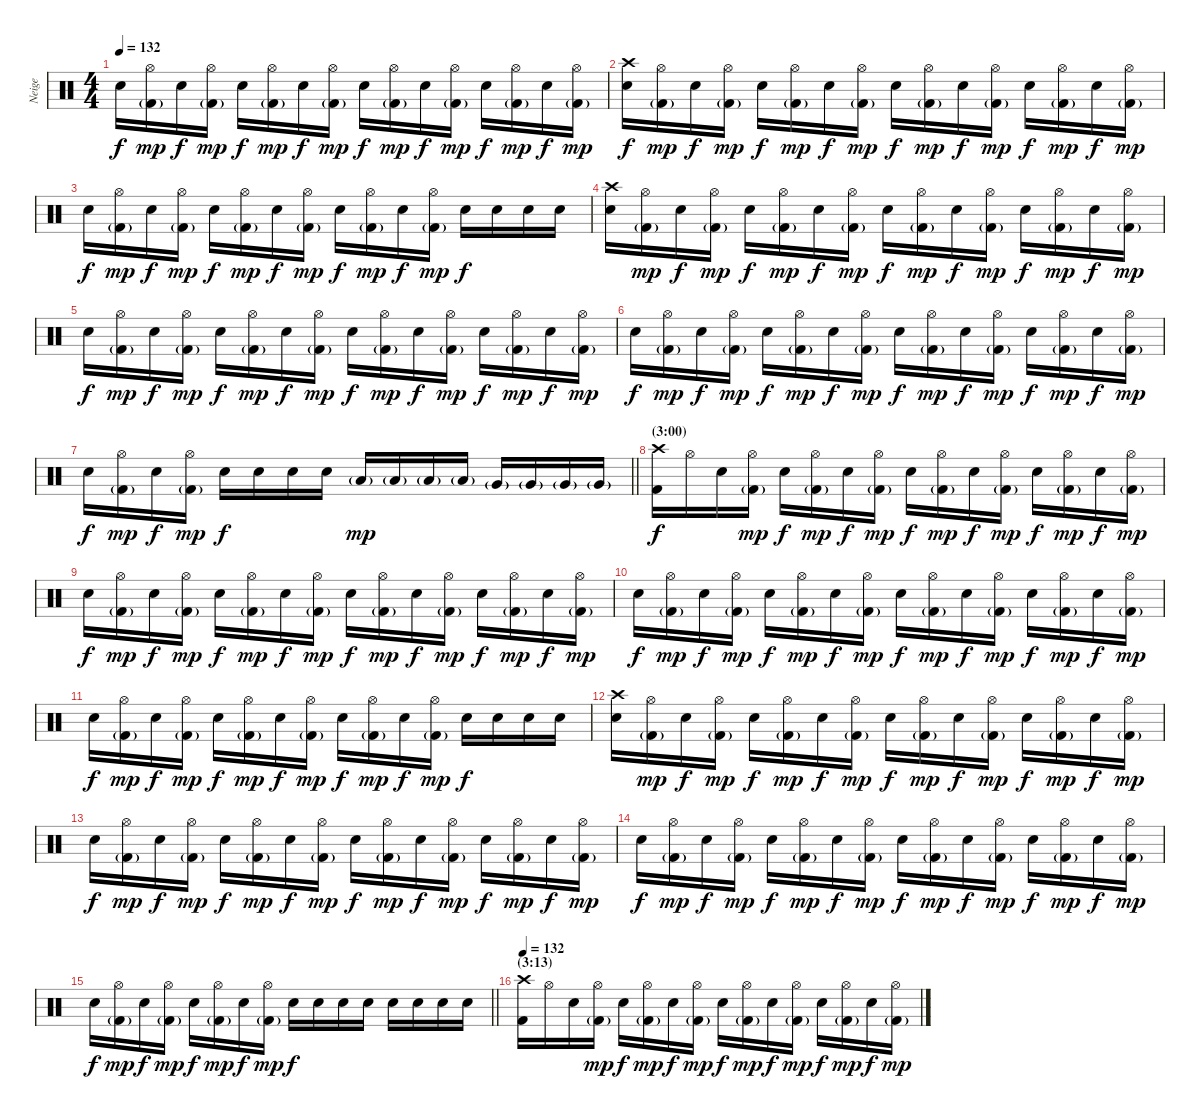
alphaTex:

\track ("Neige" "Neige") {instrument percussion}
\staff {score}
\articulation defaults
\ts (4 4)
\tempo 132
\clef neutral
\ks c "Snare (hit) 2".16{dy f}
("Kick (hit) 2"{g} "Hi-Hat (open)").16{dy mp} "Snare (hit) 2".16{dy f} ("Kick (hit) 2"{g} "Hi-Hat (open)").16{dy mp} "Snare (hit) 2".16{dy f} ("Kick (hit) 2"{g} "Hi-Hat (open)").16{dy mp} "Snare (hit) 2".16{dy f} ("Kick (hit) 2"{g} "Hi-Hat (open)").16{dy mp} "Snare (hit) 2".16{dy f} ("Kick (hit) 2"{g} "Hi-Hat (open)").16{dy mp} "Snare (hit) 2".16{dy f} ("Kick (hit) 2"{g} "Hi-Hat (open)").16{dy mp} "Snare (hit) 2".16{dy f} ("Kick (hit) 2"{g} "Hi-Hat (open)").16{dy mp} "Snare (hit) 2".16{dy f} ("Kick (hit) 2"{g} "Hi-Hat (open)").16{dy mp} |
("Snare (hit) 2" "Crash high (hit)").16{dy f} ("Kick (hit) 2"{g} "Hi-Hat (open)").16{dy mp} "Snare (hit) 2".16{dy f} ("Kick (hit) 2"{g} "Hi-Hat (open)").16{dy mp} "Snare (hit) 2".16{dy f} ("Kick (hit) 2"{g} "Hi-Hat (open)").16{dy mp} "Snare (hit) 2".16{dy f} ("Kick (hit) 2"{g} "Hi-Hat (open)").16{dy mp} "Snare (hit) 2".16{dy f} ("Kick (hit) 2"{g} "Hi-Hat (open)").16{dy mp} "Snare (hit) 2".16{dy f} ("Kick (hit) 2"{g} "Hi-Hat (open)").16{dy mp} "Snare (hit) 2".16{dy f} ("Kick (hit) 2"{g} "Hi-Hat (open)").16{dy mp} "Snare (hit) 2".16{dy f} ("Kick (hit) 2"{g} "Hi-Hat (open)").16{dy mp} |
"Snare (hit) 2".16{dy f} ("Kick (hit) 2"{g} "Hi-Hat (open)").16{dy mp} "Snare (hit) 2".16{dy f} ("Kick (hit) 2"{g} "Hi-Hat (open)").16{dy mp} "Snare (hit) 2".16{dy f} ("Kick (hit) 2"{g} "Hi-Hat (open)").16{dy mp} "Snare (hit) 2".16{dy f} ("Kick (hit) 2"{g} "Hi-Hat (open)").16{dy mp} "Snare (hit) 2".16{dy f} ("Kick (hit) 2"{g} "Hi-Hat (open)").16{dy mp} "Snare (hit) 2".16{dy f} ("Kick (hit) 2"{g} "Hi-Hat (open)").16{dy mp} "Snare (hit) 2".16{dy f} "Snare (hit) 2".16 "Snare (hit) 2".16 "Snare (hit) 2".16 |
("Snare (hit) 2" "Crash high (hit)").16 ("Kick (hit) 2"{g} "Hi-Hat (open)").16{dy mp} "Snare (hit) 2".16{dy f} ("Kick (hit) 2"{g} "Hi-Hat (open)").16{dy mp} "Snare (hit) 2".16{dy f} ("Kick (hit) 2"{g} "Hi-Hat (open)").16{dy mp} "Snare (hit) 2".16{dy f} ("Kick (hit) 2"{g} "Hi-Hat (open)").16{dy mp} "Snare (hit) 2".16{dy f} ("Kick (hit) 2"{g} "Hi-Hat (open)").16{dy mp} "Snare (hit) 2".16{dy f} ("Kick (hit) 2"{g} "Hi-Hat (open)").16{dy mp} "Snare (hit) 2".16{dy f} ("Kick (hit) 2"{g} "Hi-Hat (open)").16{dy mp} "Snare (hit) 2".16{dy f} ("Kick (hit) 2"{g} "Hi-Hat (open)").16{dy mp} |
"Snare (hit) 2".16{dy f} ("Kick (hit) 2"{g} "Hi-Hat (open)").16{dy mp} "Snare (hit) 2".16{dy f} ("Kick (hit) 2"{g} "Hi-Hat (open)").16{dy mp} "Snare (hit) 2".16{dy f} ("Kick (hit) 2"{g} "Hi-Hat (open)").16{dy mp} "Snare (hit) 2".16{dy f} ("Kick (hit) 2"{g} "Hi-Hat (open)").16{dy mp} "Snare (hit) 2".16{dy f} ("Kick (hit) 2"{g} "Hi-Hat (open)").16{dy mp} "Snare (hit) 2".16{dy f} ("Kick (hit) 2"{g} "Hi-Hat (open)").16{dy mp} "Snare (hit) 2".16{dy f} ("Kick (hit) 2"{g} "Hi-Hat (open)").16{dy mp} "Snare (hit) 2".16{dy f} ("Kick (hit) 2"{g} "Hi-Hat (open)").16{dy mp} |
"Snare (hit) 2".16{dy f} ("Kick (hit) 2"{g} "Hi-Hat (open)").16{dy mp} "Snare (hit) 2".16{dy f} ("Kick (hit) 2"{g} "Hi-Hat (open)").16{dy mp} "Snare (hit) 2".16{dy f} ("Kick (hit) 2"{g} "Hi-Hat (open)").16{dy mp} "Snare (hit) 2".16{dy f} ("Kick (hit) 2"{g} "Hi-Hat (open)").16{dy mp} "Snare (hit) 2".16{dy f} ("Kick (hit) 2"{g} "Hi-Hat (open)").16{dy mp} "Snare (hit) 2".16{dy f} ("Kick (hit) 2"{g} "Hi-Hat (open)").16{dy mp} "Snare (hit) 2".16{dy f} ("Kick (hit) 2"{g} "Hi-Hat (open)").16{dy mp} "Snare (hit) 2".16{dy f} ("Kick (hit) 2"{g} "Hi-Hat (open)").16{dy mp} |
\barLineRight lightlight "Snare (hit) 2".16{dy f}
("Kick (hit) 2"{g} "Hi-Hat (open)").16{dy mp} "Snare (hit) 2".16{dy f} ("Kick (hit) 2"{g} "Hi-Hat (open)").16{dy mp} "Snare (hit) 2".16{dy f} "Snare (hit) 2".16 "Snare (hit) 2".16 "Snare (hit) 2".16 "Low Tom (hit)"{g}.16{dy mp} "Low Tom (hit)"{g}.16 "Low Tom (hit)"{g}.16 "Low Tom (hit)"{g}.16 "Very Low Tom (hit)"{g}.16 "Very Low Tom (hit)"{g}.16 "Very Low Tom (hit)"{g}.16 "Very Low Tom (hit)"{g}.16 |
\section ("" "(3:00)")
("Kick (hit) 2" "Crash high (hit)").16{dy f} "Hi-Hat (open)".16 "Snare (hit) 2".16 ("Kick (hit) 2"{g} "Hi-Hat (open)").16{dy mp} "Snare (hit) 2".16{dy f} ("Kick (hit) 2"{g} "Hi-Hat (open)").16{dy mp} "Snare (hit) 2".16{dy f} ("Kick (hit) 2"{g} "Hi-Hat (open)").16{dy mp} "Snare (hit) 2".16{dy f} ("Kick (hit) 2"{g} "Hi-Hat (open)").16{dy mp} "Snare (hit) 2".16{dy f} ("Kick (hit) 2"{g} "Hi-Hat (open)").16{dy mp} "Snare (hit) 2".16{dy f} ("Kick (hit) 2"{g} "Hi-Hat (open)").16{dy mp} "Snare (hit) 2".16{dy f} ("Kick (hit) 2"{g} "Hi-Hat (open)").16{dy mp} |
"Snare (hit) 2".16{dy f} ("Kick (hit) 2"{g} "Hi-Hat (open)").16{dy mp} "Snare (hit) 2".16{dy f} ("Kick (hit) 2"{g} "Hi-Hat (open)").16{dy mp} "Snare (hit) 2".16{dy f} ("Kick (hit) 2"{g} "Hi-Hat (open)").16{dy mp} "Snare (hit) 2".16{dy f} ("Kick (hit) 2"{g} "Hi-Hat (open)").16{dy mp} "Snare (hit) 2".16{dy f} ("Kick (hit) 2"{g} "Hi-Hat (open)").16{dy mp} "Snare (hit) 2".16{dy f} ("Kick (hit) 2"{g} "Hi-Hat (open)").16{dy mp} "Snare (hit) 2".16{dy f} ("Kick (hit) 2"{g} "Hi-Hat (open)").16{dy mp} "Snare (hit) 2".16{dy f} ("Kick (hit) 2"{g} "Hi-Hat (open)").16{dy mp} |
"Snare (hit) 2".16{dy f} ("Kick (hit) 2"{g} "Hi-Hat (open)").16{dy mp} "Snare (hit) 2".16{dy f} ("Kick (hit) 2"{g} "Hi-Hat (open)").16{dy mp} "Snare (hit) 2".16{dy f} ("Kick (hit) 2"{g} "Hi-Hat (open)").16{dy mp} "Snare (hit) 2".16{dy f} ("Kick (hit) 2"{g} "Hi-Hat (open)").16{dy mp} "Snare (hit) 2".16{dy f} ("Kick (hit) 2"{g} "Hi-Hat (open)").16{dy mp} "Snare (hit) 2".16{dy f} ("Kick (hit) 2"{g} "Hi-Hat (open)").16{dy mp} "Snare (hit) 2".16{dy f} ("Kick (hit) 2"{g} "Hi-Hat (open)").16{dy mp} "Snare (hit) 2".16{dy f} ("Kick (hit) 2"{g} "Hi-Hat (open)").16{dy mp} |
"Snare (hit) 2".16{dy f} ("Kick (hit) 2"{g} "Hi-Hat (open)").16{dy mp} "Snare (hit) 2".16{dy f} ("Kick (hit) 2"{g} "Hi-Hat (open)").16{dy mp} "Snare (hit) 2".16{dy f} ("Kick (hit) 2"{g} "Hi-Hat (open)").16{dy mp} "Snare (hit) 2".16{dy f} ("Kick (hit) 2"{g} "Hi-Hat (open)").16{dy mp} "Snare (hit) 2".16{dy f} ("Kick (hit) 2"{g} "Hi-Hat (open)").16{dy mp} "Snare (hit) 2".16{dy f} ("Kick (hit) 2"{g} "Hi-Hat (open)").16{dy mp} "Snare (hit) 2".16{dy f} "Snare (hit) 2".16 "Snare (hit) 2".16 "Snare (hit) 2".16 |
("Snare (hit) 2" "Crash high (hit)").16 ("Kick (hit) 2"{g} "Hi-Hat (open)").16{dy mp} "Snare (hit) 2".16{dy f} ("Kick (hit) 2"{g} "Hi-Hat (open)").16{dy mp} "Snare (hit) 2".16{dy f} ("Kick (hit) 2"{g} "Hi-Hat (open)").16{dy mp} "Snare (hit) 2".16{dy f} ("Kick (hit) 2"{g} "Hi-Hat (open)").16{dy mp} "Snare (hit) 2".16{dy f} ("Kick (hit) 2"{g} "Hi-Hat (open)").16{dy mp} "Snare (hit) 2".16{dy f} ("Kick (hit) 2"{g} "Hi-Hat (open)").16{dy mp} "Snare (hit) 2".16{dy f} ("Kick (hit) 2"{g} "Hi-Hat (open)").16{dy mp} "Snare (hit) 2".16{dy f} ("Kick (hit) 2"{g} "Hi-Hat (open)").16{dy mp} |
"Snare (hit) 2".16{dy f} ("Kick (hit) 2"{g} "Hi-Hat (open)").16{dy mp} "Snare (hit) 2".16{dy f} ("Kick (hit) 2"{g} "Hi-Hat (open)").16{dy mp} "Snare (hit) 2".16{dy f} ("Kick (hit) 2"{g} "Hi-Hat (open)").16{dy mp} "Snare (hit) 2".16{dy f} ("Kick (hit) 2"{g} "Hi-Hat (open)").16{dy mp} "Snare (hit) 2".16{dy f} ("Kick (hit) 2"{g} "Hi-Hat (open)").16{dy mp} "Snare (hit) 2".16{dy f} ("Kick (hit) 2"{g} "Hi-Hat (open)").16{dy mp} "Snare (hit) 2".16{dy f} ("Kick (hit) 2"{g} "Hi-Hat (open)").16{dy mp} "Snare (hit) 2".16{dy f} ("Kick (hit) 2"{g} "Hi-Hat (open)").16{dy mp} |
"Snare (hit) 2".16{dy f} ("Kick (hit) 2"{g} "Hi-Hat (open)").16{dy mp} "Snare (hit) 2".16{dy f} ("Kick (hit) 2"{g} "Hi-Hat (open)").16{dy mp} "Snare (hit) 2".16{dy f} ("Kick (hit) 2"{g} "Hi-Hat (open)").16{dy mp} "Snare (hit) 2".16{dy f} ("Kick (hit) 2"{g} "Hi-Hat (open)").16{dy mp} "Snare (hit) 2".16{dy f} ("Kick (hit) 2"{g} "Hi-Hat (open)").16{dy mp} "Snare (hit) 2".16{dy f} ("Kick (hit) 2"{g} "Hi-Hat (open)").16{dy mp} "Snare (hit) 2".16{dy f} ("Kick (hit) 2"{g} "Hi-Hat (open)").16{dy mp} "Snare (hit) 2".16{dy f} ("Kick (hit) 2"{g} "Hi-Hat (open)").16{dy mp} |
\barLineRight lightlight "Snare (hit) 2".16{dy f}
("Kick (hit) 2"{g} "Hi-Hat (open)").16{dy mp} "Snare (hit) 2".16{dy f} ("Kick (hit) 2"{g} "Hi-Hat (open)").16{dy mp} "Snare (hit) 2".16{dy f} ("Kick (hit) 2"{g} "Hi-Hat (open)").16{dy mp} "Snare (hit) 2".16{dy f} ("Kick (hit) 2"{g} "Hi-Hat (open)").16{dy mp} "Snare (hit) 2".16{dy f} "Snare (hit) 2".16 "Snare (hit) 2".16 "Snare (hit) 2".16 "Snare (hit) 2".16 "Snare (hit) 2".16 "Snare (hit) 2".16 "Snare (hit) 2".16 |
\section ("" "(3:13)")
\tempo 132
("Kick (hit) 2" "Crash high (hit)").16 "Hi-Hat (open)".16 "Snare (hit) 2".16 ("Kick (hit) 2"{g} "Hi-Hat (open)").16{dy mp} "Snare (hit) 2".16{dy f} ("Kick (hit) 2"{g} "Hi-Hat (open)").16{dy mp} "Snare (hit) 2".16{dy f} ("Kick (hit) 2"{g} "Hi-Hat (open)").16{dy mp} "Snare (hit) 2".16{dy f} ("Kick (hit) 2"{g} "Hi-Hat (open)").16{dy mp} "Snare (hit) 2".16{dy f} ("Kick (hit) 2"{g} "Hi-Hat (open)").16{dy mp} "Snare (hit) 2".16{dy f} ("Kick (hit) 2"{g} "Hi-Hat (open)").16{dy mp} "Snare (hit) 2".16{dy f} ("Kick (hit) 2"{g} "Hi-Hat (open)").16{dy mp}
